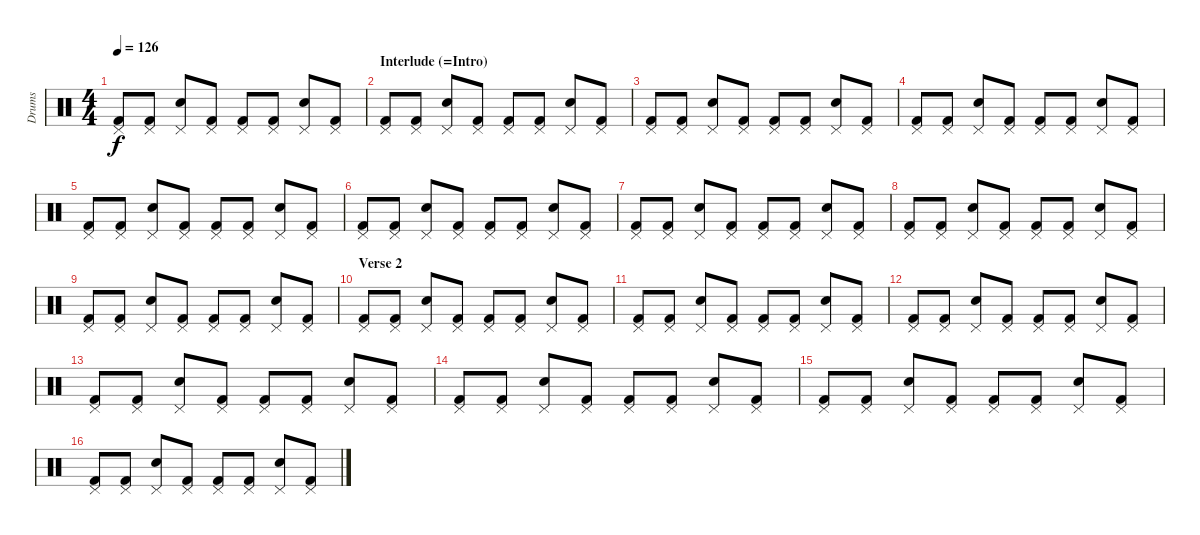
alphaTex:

\track ("Drums" "Drums") {instrument percussion}
\staff {score}
\articulation defaults
\ts (4 4)
\tempo 126
\clef neutral
\ks c
("Kick (hit) 2" "Pedal Hi-Hat (hit)").8{dy f} ("Kick (hit) 2" "Pedal Hi-Hat (hit)").8 ("Snare (hit) 2" "Pedal Hi-Hat (hit)").8 ("Kick (hit) 2" "Pedal Hi-Hat (hit)").8 ("Kick (hit) 2" "Pedal Hi-Hat (hit)").8 ("Kick (hit) 2" "Pedal Hi-Hat (hit)").8 ("Snare (hit) 2" "Pedal Hi-Hat (hit)").8 ("Kick (hit) 2" "Pedal Hi-Hat (hit)").8 |
\section ("" "Interlude (=Intro)")
("Kick (hit) 2" "Pedal Hi-Hat (hit)").8 ("Kick (hit) 2" "Pedal Hi-Hat (hit)").8 ("Snare (hit) 2" "Pedal Hi-Hat (hit)").8 ("Kick (hit) 2" "Pedal Hi-Hat (hit)").8 ("Kick (hit) 2" "Pedal Hi-Hat (hit)").8 ("Kick (hit) 2" "Pedal Hi-Hat (hit)").8 ("Snare (hit) 2" "Pedal Hi-Hat (hit)").8 ("Kick (hit) 2" "Pedal Hi-Hat (hit)").8 |
("Kick (hit) 2" "Pedal Hi-Hat (hit)").8 ("Kick (hit) 2" "Pedal Hi-Hat (hit)").8 ("Snare (hit) 2" "Pedal Hi-Hat (hit)").8 ("Kick (hit) 2" "Pedal Hi-Hat (hit)").8 ("Kick (hit) 2" "Pedal Hi-Hat (hit)").8 ("Kick (hit) 2" "Pedal Hi-Hat (hit)").8 ("Snare (hit) 2" "Pedal Hi-Hat (hit)").8 ("Kick (hit) 2" "Pedal Hi-Hat (hit)").8 |
("Kick (hit) 2" "Pedal Hi-Hat (hit)").8 ("Kick (hit) 2" "Pedal Hi-Hat (hit)").8 ("Snare (hit) 2" "Pedal Hi-Hat (hit)").8 ("Kick (hit) 2" "Pedal Hi-Hat (hit)").8 ("Kick (hit) 2" "Pedal Hi-Hat (hit)").8 ("Kick (hit) 2" "Pedal Hi-Hat (hit)").8 ("Snare (hit) 2" "Pedal Hi-Hat (hit)").8 ("Kick (hit) 2" "Pedal Hi-Hat (hit)").8 |
("Kick (hit) 2" "Pedal Hi-Hat (hit)").8 ("Kick (hit) 2" "Pedal Hi-Hat (hit)").8 ("Snare (hit) 2" "Pedal Hi-Hat (hit)").8 ("Kick (hit) 2" "Pedal Hi-Hat (hit)").8 ("Kick (hit) 2" "Pedal Hi-Hat (hit)").8 ("Kick (hit) 2" "Pedal Hi-Hat (hit)").8 ("Snare (hit) 2" "Pedal Hi-Hat (hit)").8 ("Kick (hit) 2" "Pedal Hi-Hat (hit)").8 |
("Kick (hit) 2" "Pedal Hi-Hat (hit)").8 ("Kick (hit) 2" "Pedal Hi-Hat (hit)").8 ("Snare (hit) 2" "Pedal Hi-Hat (hit)").8 ("Kick (hit) 2" "Pedal Hi-Hat (hit)").8 ("Kick (hit) 2" "Pedal Hi-Hat (hit)").8 ("Kick (hit) 2" "Pedal Hi-Hat (hit)").8 ("Snare (hit) 2" "Pedal Hi-Hat (hit)").8 ("Kick (hit) 2" "Pedal Hi-Hat (hit)").8 |
("Kick (hit) 2" "Pedal Hi-Hat (hit)").8 ("Kick (hit) 2" "Pedal Hi-Hat (hit)").8 ("Snare (hit) 2" "Pedal Hi-Hat (hit)").8 ("Kick (hit) 2" "Pedal Hi-Hat (hit)").8 ("Kick (hit) 2" "Pedal Hi-Hat (hit)").8 ("Kick (hit) 2" "Pedal Hi-Hat (hit)").8 ("Snare (hit) 2" "Pedal Hi-Hat (hit)").8 ("Kick (hit) 2" "Pedal Hi-Hat (hit)").8 |
("Kick (hit) 2" "Pedal Hi-Hat (hit)").8 ("Kick (hit) 2" "Pedal Hi-Hat (hit)").8 ("Snare (hit) 2" "Pedal Hi-Hat (hit)").8 ("Kick (hit) 2" "Pedal Hi-Hat (hit)").8 ("Kick (hit) 2" "Pedal Hi-Hat (hit)").8 ("Kick (hit) 2" "Pedal Hi-Hat (hit)").8 ("Snare (hit) 2" "Pedal Hi-Hat (hit)").8 ("Kick (hit) 2" "Pedal Hi-Hat (hit)").8 |
("Kick (hit) 2" "Pedal Hi-Hat (hit)").8 ("Kick (hit) 2" "Pedal Hi-Hat (hit)").8 ("Snare (hit) 2" "Pedal Hi-Hat (hit)").8 ("Kick (hit) 2" "Pedal Hi-Hat (hit)").8 ("Kick (hit) 2" "Pedal Hi-Hat (hit)").8 ("Kick (hit) 2" "Pedal Hi-Hat (hit)").8 ("Snare (hit) 2" "Pedal Hi-Hat (hit)").8 ("Kick (hit) 2" "Pedal Hi-Hat (hit)").8 |
\section ("" "Verse 2")
("Kick (hit) 2" "Pedal Hi-Hat (hit)").8 ("Kick (hit) 2" "Pedal Hi-Hat (hit)").8 ("Snare (hit) 2" "Pedal Hi-Hat (hit)").8 ("Kick (hit) 2" "Pedal Hi-Hat (hit)").8 ("Kick (hit) 2" "Pedal Hi-Hat (hit)").8 ("Kick (hit) 2" "Pedal Hi-Hat (hit)").8 ("Snare (hit) 2" "Pedal Hi-Hat (hit)").8 ("Kick (hit) 2" "Pedal Hi-Hat (hit)").8 |
("Kick (hit) 2" "Pedal Hi-Hat (hit)").8 ("Kick (hit) 2" "Pedal Hi-Hat (hit)").8 ("Snare (hit) 2" "Pedal Hi-Hat (hit)").8 ("Kick (hit) 2" "Pedal Hi-Hat (hit)").8 ("Kick (hit) 2" "Pedal Hi-Hat (hit)").8 ("Kick (hit) 2" "Pedal Hi-Hat (hit)").8 ("Snare (hit) 2" "Pedal Hi-Hat (hit)").8 ("Kick (hit) 2" "Pedal Hi-Hat (hit)").8 |
("Kick (hit) 2" "Pedal Hi-Hat (hit)").8 ("Kick (hit) 2" "Pedal Hi-Hat (hit)").8 ("Snare (hit) 2" "Pedal Hi-Hat (hit)").8 ("Kick (hit) 2" "Pedal Hi-Hat (hit)").8 ("Kick (hit) 2" "Pedal Hi-Hat (hit)").8 ("Kick (hit) 2" "Pedal Hi-Hat (hit)").8 ("Snare (hit) 2" "Pedal Hi-Hat (hit)").8 ("Kick (hit) 2" "Pedal Hi-Hat (hit)").8 |
("Kick (hit) 2" "Pedal Hi-Hat (hit)").8 ("Kick (hit) 2" "Pedal Hi-Hat (hit)").8 ("Snare (hit) 2" "Pedal Hi-Hat (hit)").8 ("Kick (hit) 2" "Pedal Hi-Hat (hit)").8 ("Kick (hit) 2" "Pedal Hi-Hat (hit)").8 ("Kick (hit) 2" "Pedal Hi-Hat (hit)").8 ("Snare (hit) 2" "Pedal Hi-Hat (hit)").8 ("Kick (hit) 2" "Pedal Hi-Hat (hit)").8 |
("Kick (hit) 2" "Pedal Hi-Hat (hit)").8 ("Kick (hit) 2" "Pedal Hi-Hat (hit)").8 ("Snare (hit) 2" "Pedal Hi-Hat (hit)").8 ("Kick (hit) 2" "Pedal Hi-Hat (hit)").8 ("Kick (hit) 2" "Pedal Hi-Hat (hit)").8 ("Kick (hit) 2" "Pedal Hi-Hat (hit)").8 ("Snare (hit) 2" "Pedal Hi-Hat (hit)").8 ("Kick (hit) 2" "Pedal Hi-Hat (hit)").8 |
("Kick (hit) 2" "Pedal Hi-Hat (hit)").8 ("Kick (hit) 2" "Pedal Hi-Hat (hit)").8 ("Snare (hit) 2" "Pedal Hi-Hat (hit)").8 ("Kick (hit) 2" "Pedal Hi-Hat (hit)").8 ("Kick (hit) 2" "Pedal Hi-Hat (hit)").8 ("Kick (hit) 2" "Pedal Hi-Hat (hit)").8 ("Snare (hit) 2" "Pedal Hi-Hat (hit)").8 ("Kick (hit) 2" "Pedal Hi-Hat (hit)").8 |
("Kick (hit) 2" "Pedal Hi-Hat (hit)").8 ("Kick (hit) 2" "Pedal Hi-Hat (hit)").8 ("Snare (hit) 2" "Pedal Hi-Hat (hit)").8 ("Kick (hit) 2" "Pedal Hi-Hat (hit)").8 ("Kick (hit) 2" "Pedal Hi-Hat (hit)").8 ("Kick (hit) 2" "Pedal Hi-Hat (hit)").8 ("Snare (hit) 2" "Pedal Hi-Hat (hit)").8 ("Kick (hit) 2" "Pedal Hi-Hat (hit)").8
